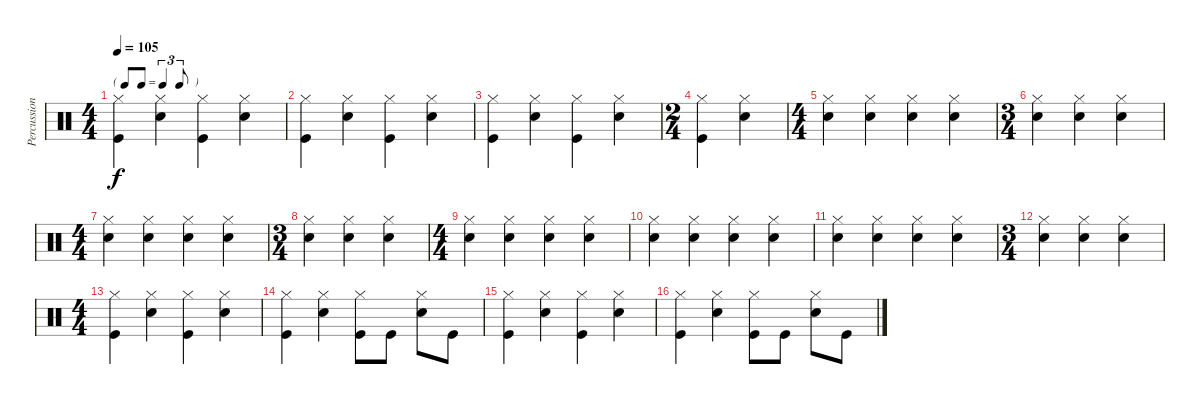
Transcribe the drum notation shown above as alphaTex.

\track ("Percussion" "Percussion") {instrument percussion}
\staff {score}
\articulation defaults
\ts (4 4)
\tf triplet8th
\tempo 105
\clef neutral
\ks c
("Hi-Hat (closed)" "Kick (hit)").4{dy f} ("Hi-Hat (closed)" "Snare (hit) 2").4 ("Hi-Hat (closed)" "Kick (hit)").4 ("Hi-Hat (closed)" "Snare (hit) 2").4 |
("Hi-Hat (closed)" "Kick (hit)").4 ("Hi-Hat (closed)" "Snare (hit) 2").4 ("Hi-Hat (closed)" "Kick (hit)").4 ("Hi-Hat (closed)" "Snare (hit) 2").4 |
("Hi-Hat (closed)" "Kick (hit)").4 ("Hi-Hat (closed)" "Snare (hit) 2").4 ("Hi-Hat (closed)" "Kick (hit)").4 ("Hi-Hat (closed)" "Snare (hit) 2").4 |
\ts (2 4)
("Hi-Hat (closed)" "Kick (hit)").4 ("Hi-Hat (closed)" "Snare (hit) 2").4 |
\ts (4 4)
("Hi-Hat (closed)" "Snare (hit) 2").4 ("Hi-Hat (closed)" "Snare (hit) 2").4 ("Hi-Hat (closed)" "Snare (hit) 2").4 ("Hi-Hat (closed)" "Snare (hit) 2").4 |
\ts (3 4)
("Hi-Hat (closed)" "Snare (hit) 2").4 ("Hi-Hat (closed)" "Snare (hit) 2").4 ("Hi-Hat (closed)" "Snare (hit) 2").4 |
\ts (4 4)
("Hi-Hat (closed)" "Snare (hit) 2").4 ("Hi-Hat (closed)" "Snare (hit) 2").4 ("Hi-Hat (closed)" "Snare (hit) 2").4 ("Hi-Hat (closed)" "Snare (hit) 2").4 |
\ts (3 4)
("Hi-Hat (closed)" "Snare (hit) 2").4 ("Hi-Hat (closed)" "Snare (hit) 2").4 ("Hi-Hat (closed)" "Snare (hit) 2").4 |
\ts (4 4)
("Hi-Hat (closed)" "Snare (hit) 2").4 ("Hi-Hat (closed)" "Snare (hit) 2").4 ("Hi-Hat (closed)" "Snare (hit) 2").4 ("Hi-Hat (closed)" "Snare (hit) 2").4 |
("Hi-Hat (closed)" "Snare (hit) 2").4 ("Hi-Hat (closed)" "Snare (hit) 2").4 ("Hi-Hat (closed)" "Snare (hit) 2").4 ("Hi-Hat (closed)" "Snare (hit) 2").4 |
("Hi-Hat (closed)" "Snare (hit) 2").4 ("Hi-Hat (closed)" "Snare (hit) 2").4 ("Hi-Hat (closed)" "Snare (hit) 2").4 ("Hi-Hat (closed)" "Snare (hit) 2").4 |
\ts (3 4)
("Hi-Hat (closed)" "Snare (hit) 2").4 ("Hi-Hat (closed)" "Snare (hit) 2").4 ("Hi-Hat (closed)" "Snare (hit) 2").4 |
\ts (4 4)
("Hi-Hat (closed)" "Kick (hit)").4 ("Hi-Hat (closed)" "Snare (hit) 2").4 ("Hi-Hat (closed)" "Kick (hit)").4 ("Hi-Hat (closed)" "Snare (hit) 2").4 |
("Hi-Hat (closed)" "Kick (hit)").4 ("Hi-Hat (closed)" "Snare (hit) 2").4 ("Hi-Hat (closed)" "Kick (hit)").8 "Kick (hit)".8 ("Hi-Hat (closed)" "Snare (hit) 2").8 "Kick (hit)".8 |
("Hi-Hat (closed)" "Kick (hit)").4 ("Hi-Hat (closed)" "Snare (hit) 2").4 ("Hi-Hat (closed)" "Kick (hit)").4 ("Hi-Hat (closed)" "Snare (hit) 2").4 |
("Hi-Hat (closed)" "Kick (hit)").4 ("Hi-Hat (closed)" "Snare (hit) 2").4 ("Hi-Hat (closed)" "Kick (hit)").8 "Kick (hit)".8 ("Hi-Hat (closed)" "Snare (hit) 2").8 "Kick (hit)".8
